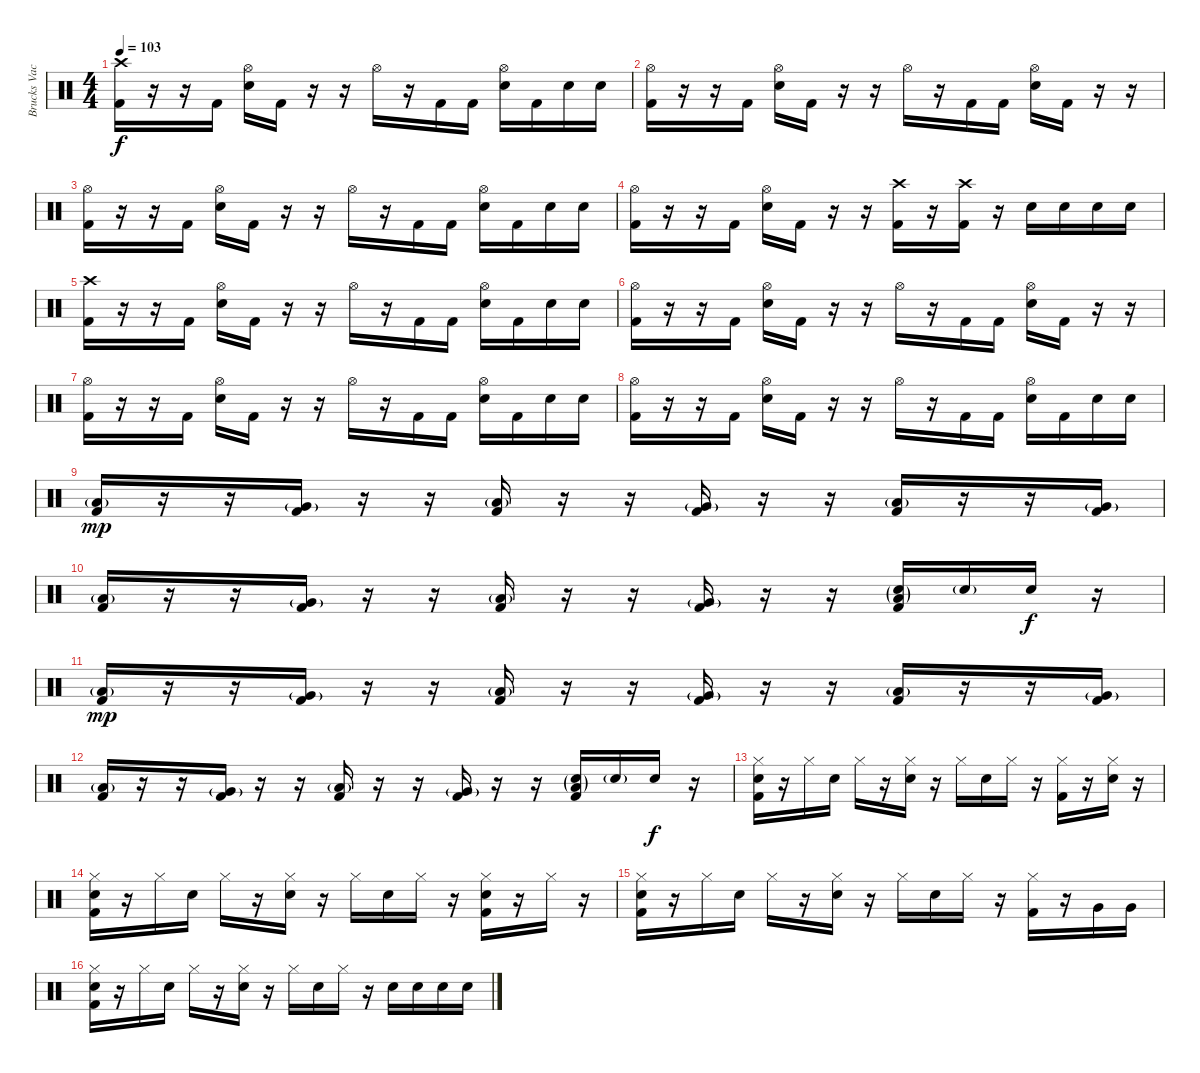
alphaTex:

\track ("Brucks Vackerman" "Brucks Vac") {instrument percussion}
\staff {score}
\articulation defaults
\ts (4 4)
\tempo 103
\clef neutral
\ks c
("Crash high (hit)" "Kick (hit) 2").16{dy f} r.16 r.16 "Kick (hit) 2".16 ("Hi-Hat (open)" "Electric Snare (hit)").16 "Kick (hit) 2".16 r.16 r.16 "Hi-Hat (open)".16 r.16 "Kick (hit) 2".16 "Kick (hit) 2".16 ("Hi-Hat (open)" "Electric Snare (hit)").16 "Kick (hit) 2".16 "Electric Snare (hit)".16 "Electric Snare (hit)".16 |
("Hi-Hat (open)" "Kick (hit) 2").16 r.16 r.16 "Kick (hit) 2".16 ("Hi-Hat (open)" "Electric Snare (hit)").16 "Kick (hit) 2".16 r.16 r.16 "Hi-Hat (open)".16 r.16 "Kick (hit) 2".16 "Kick (hit) 2".16 ("Hi-Hat (open)" "Electric Snare (hit)").16 "Kick (hit) 2".16 r.16 r.16 |
("Hi-Hat (open)" "Kick (hit) 2").16 r.16 r.16 "Kick (hit) 2".16 ("Hi-Hat (open)" "Electric Snare (hit)").16 "Kick (hit) 2".16 r.16 r.16 "Hi-Hat (open)".16 r.16 "Kick (hit) 2".16 "Kick (hit) 2".16 ("Hi-Hat (open)" "Electric Snare (hit)").16 "Kick (hit) 2".16 "Electric Snare (hit)".16 "Electric Snare (hit)".16 |
("Hi-Hat (open)" "Kick (hit) 2").16 r.16 r.16 "Kick (hit) 2".16 ("Hi-Hat (open)" "Electric Snare (hit)").16 "Kick (hit) 2".16 r.16 r.16 ("Crash high (hit)" "Kick (hit) 2").16 r.16 ("Crash high (hit)" "Kick (hit) 2").16 r.16 "Electric Snare (hit)".16 "Electric Snare (hit)".16 "Electric Snare (hit)".16 "Electric Snare (hit)".16 |
("Crash high (hit)" "Kick (hit) 2").16 r.16 r.16 "Kick (hit) 2".16 ("Hi-Hat (open)" "Electric Snare (hit)").16 "Kick (hit) 2".16 r.16 r.16 "Hi-Hat (open)".16 r.16 "Kick (hit) 2".16 "Kick (hit) 2".16 ("Hi-Hat (open)" "Electric Snare (hit)").16 "Kick (hit) 2".16 "Electric Snare (hit)".16 "Electric Snare (hit)".16 |
("Hi-Hat (open)" "Kick (hit) 2").16 r.16 r.16 "Kick (hit) 2".16 ("Hi-Hat (open)" "Electric Snare (hit)").16 "Kick (hit) 2".16 r.16 r.16 "Hi-Hat (open)".16 r.16 "Kick (hit) 2".16 "Kick (hit) 2".16 ("Hi-Hat (open)" "Electric Snare (hit)").16 "Kick (hit) 2".16 r.16 r.16 |
("Hi-Hat (open)" "Kick (hit) 2").16 r.16 r.16 "Kick (hit) 2".16 ("Hi-Hat (open)" "Electric Snare (hit)").16 "Kick (hit) 2".16 r.16 r.16 "Hi-Hat (open)".16 r.16 "Kick (hit) 2".16 "Kick (hit) 2".16 ("Hi-Hat (open)" "Electric Snare (hit)").16 "Kick (hit) 2".16 "Electric Snare (hit)".16 "Electric Snare (hit)".16 |
("Hi-Hat (open)" "Kick (hit) 2").16 r.16 r.16 "Kick (hit) 2".16 ("Hi-Hat (open)" "Electric Snare (hit)").16 "Kick (hit) 2".16 r.16 r.16 "Hi-Hat (open)".16 r.16 "Kick (hit) 2".16 "Kick (hit) 2".16 ("Hi-Hat (open)" "Electric Snare (hit)").16 "Kick (hit) 2".16 "Electric Snare (hit)".16 "Electric Snare (hit)".16 |
("Low Floor Tom (hit)"{g} "Kick (hit) 2").16{dy mp} r.16 r.16 ("Very Low Tom (hit)"{g} "Kick (hit) 2").16 r.16 r.16 ("Low Floor Tom (hit)"{g} "Kick (hit) 2").16 r.16 r.16 ("Very Low Tom (hit)"{g} "Kick (hit) 2").16 r.16 r.16 ("Low Floor Tom (hit)"{g} "Kick (hit) 2").16 r.16 r.16 ("Very Low Tom (hit)"{g} "Kick (hit) 2").16 |
("Low Floor Tom (hit)"{g} "Kick (hit) 2").16 r.16 r.16 ("Very Low Tom (hit)"{g} "Kick (hit) 2").16 r.16 r.16 ("Low Floor Tom (hit)"{g} "Kick (hit) 2").16 r.16 r.16 ("Very Low Tom (hit)"{g} "Kick (hit) 2").16 r.16 r.16 ("Electric Snare (hit)"{g} "Low Floor Tom (hit)"{g} "Kick (hit) 2").16 "Electric Snare (hit)"{g}.16 "Electric Snare (hit)".16{dy f} r.16 |
("Low Floor Tom (hit)"{g} "Kick (hit) 2").16{dy mp} r.16 r.16 ("Very Low Tom (hit)"{g} "Kick (hit) 2").16 r.16 r.16 ("Low Floor Tom (hit)"{g} "Kick (hit) 2").16 r.16 r.16 ("Very Low Tom (hit)"{g} "Kick (hit) 2").16 r.16 r.16 ("Low Floor Tom (hit)"{g} "Kick (hit) 2").16 r.16 r.16 ("Very Low Tom (hit)"{g} "Kick (hit) 2").16 |
("Low Floor Tom (hit)"{g} "Kick (hit) 2").16 r.16 r.16 ("Very Low Tom (hit)"{g} "Kick (hit) 2").16 r.16 r.16 ("Low Floor Tom (hit)"{g} "Kick (hit) 2").16 r.16 r.16 ("Very Low Tom (hit)"{g} "Kick (hit) 2").16 r.16 r.16 ("Electric Snare (hit)"{g} "Low Floor Tom (hit)"{g} "Kick (hit) 2").16 "Electric Snare (hit)"{g}.16 "Electric Snare (hit)".16{dy f} r.16 |
("Hi-Hat (closed)" "Electric Snare (hit)" "Kick (hit) 2").16 r.16 "Hi-Hat (closed)".16 "Electric Snare (hit)".16 "Hi-Hat (closed)".16 r.16 ("Hi-Hat (closed)" "Electric Snare (hit)").16 r.16 "Hi-Hat (closed)".16 "Electric Snare (hit)".16 "Hi-Hat (closed)".16 r.16 ("Hi-Hat (closed)" "Kick (hit) 2").16 r.16 ("Hi-Hat (closed)" "Electric Snare (hit)").16 r.16 |
("Hi-Hat (closed)" "Electric Snare (hit)" "Kick (hit) 2").16 r.16 "Hi-Hat (closed)".16 "Electric Snare (hit)".16 "Hi-Hat (closed)".16 r.16 ("Hi-Hat (closed)" "Electric Snare (hit)").16 r.16 "Hi-Hat (closed)".16 "Electric Snare (hit)".16 "Hi-Hat (closed)".16 r.16 ("Hi-Hat (closed)" "Electric Snare (hit)" "Kick (hit) 2").16 r.16 "Hi-Hat (closed)".16 r.16 |
("Hi-Hat (closed)" "Electric Snare (hit)" "Kick (hit) 2").16 r.16 "Hi-Hat (closed)".16 "Electric Snare (hit)".16 "Hi-Hat (closed)".16 r.16 ("Hi-Hat (closed)" "Electric Snare (hit)").16 r.16 "Hi-Hat (closed)".16 "Electric Snare (hit)".16 "Hi-Hat (closed)".16 r.16 ("Hi-Hat (closed)" "Kick (hit) 2").16 r.16 "Very Low Tom (hit)".16 "Very Low Tom (hit)".16 |
("Hi-Hat (closed)" "Electric Snare (hit)" "Kick (hit) 2").16 r.16 "Hi-Hat (closed)".16 "Electric Snare (hit)".16 "Hi-Hat (closed)".16 r.16 ("Hi-Hat (closed)" "Electric Snare (hit)").16 r.16 "Hi-Hat (closed)".16 "Electric Snare (hit)".16 "Hi-Hat (closed)".16 r.16 "Electric Snare (hit)".16 "Electric Snare (hit)".16 "Electric Snare (hit)".16 "Electric Snare (hit)".16
